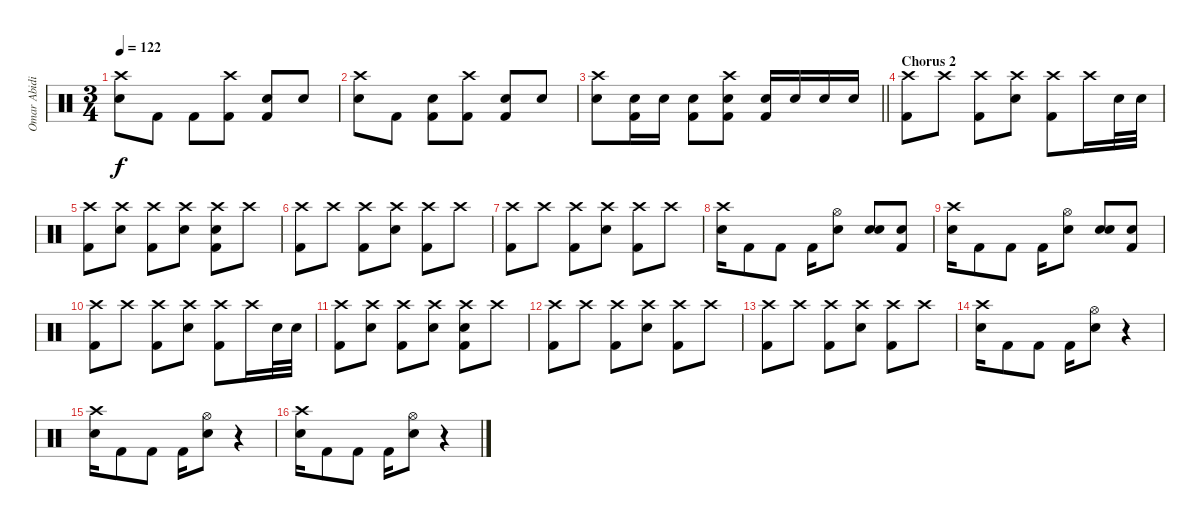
\track ("Omar Abidi" "Omar Abidi") {instrument percussion}
\staff {score}
\articulation defaults
\ts (3 4)
\tempo 122
\clef neutral
\ks c
("Crash high (hit)" "Electric Snare (hit)").8{dy f} "Kick (hit) 2".8 "Kick (hit) 2".8 ("Crash high (hit)" "Kick (hit) 2").8 ("Electric Snare (hit)" "Kick (hit) 2").8 "Electric Snare (hit)".8 |
("Crash high (hit)" "Electric Snare (hit)").8 "Kick (hit) 2".8 ("Electric Snare (hit)" "Kick (hit) 2").8 ("Crash high (hit)" "Kick (hit) 2").8 ("Electric Snare (hit)" "Kick (hit) 2").8 "Electric Snare (hit)".8 |
\barLineRight lightlight
("Crash high (hit)" "Electric Snare (hit)").8 ("Electric Snare (hit)" "Kick (hit) 2").16 "Electric Snare (hit)".16 ("Electric Snare (hit)" "Kick (hit) 2").8 ("Crash high (hit)" "Electric Snare (hit)" "Kick (hit) 2").8 ("Electric Snare (hit)" "Kick (hit) 2").16 "Electric Snare (hit)".16 "Electric Snare (hit)".16 "Electric Snare (hit)".16 |
\section ("" "Chorus 2")
("Crash high (hit)" "Kick (hit) 2").8 "Crash high (hit)".8 ("Crash high (hit)" "Kick (hit) 2").8 ("Crash high (hit)" "Electric Snare (hit)").8 ("Crash high (hit)" "Kick (hit) 2").8 "Crash high (hit)".16 "Electric Snare (hit)".32 "Electric Snare (hit)".32 |
("Crash high (hit)" "Kick (hit) 2").8 ("Crash high (hit)" "Electric Snare (hit)").8 ("Crash high (hit)" "Kick (hit) 2").8 ("Crash high (hit)" "Electric Snare (hit)").8 ("Crash high (hit)" "Electric Snare (hit)" "Kick (hit) 2").8 "Crash high (hit)".8 |
("Crash high (hit)" "Kick (hit) 2").8 "Crash high (hit)".8 ("Crash high (hit)" "Kick (hit) 2").8 ("Crash high (hit)" "Electric Snare (hit)").8 ("Crash high (hit)" "Kick (hit) 2").8 "Crash high (hit)".8 |
("Crash high (hit)" "Kick (hit) 2").8 "Crash high (hit)".8 ("Crash high (hit)" "Kick (hit) 2").8 ("Crash high (hit)" "Electric Snare (hit)").8 ("Crash high (hit)" "Kick (hit) 2").8 "Crash high (hit)".8 |
("Crash high (hit)" "Electric Snare (hit)").16 "Kick (hit) 2".8 "Kick (hit) 2".8 "Kick (hit) 2".16 ("Hi-Hat (open)" "Electric Snare (hit)").8 ("Electric Snare (hit)" "Electric Snare (hit)").8{bd 120} ("Electric Snare (hit)" "Kick (hit) 2").8 |
("Crash high (hit)" "Electric Snare (hit)").16 "Kick (hit) 2".8 "Kick (hit) 2".8 "Kick (hit) 2".16 ("Hi-Hat (open)" "Electric Snare (hit)").8 ("Electric Snare (hit)" "Electric Snare (hit)").8{bd 120} ("Electric Snare (hit)" "Kick (hit) 2").8 |
("Crash high (hit)" "Kick (hit) 2").8 "Crash high (hit)".8 ("Crash high (hit)" "Kick (hit) 2").8 ("Crash high (hit)" "Electric Snare (hit)").8 ("Crash high (hit)" "Kick (hit) 2").8 "Crash high (hit)".16 "Electric Snare (hit)".32 "Electric Snare (hit)".32 |
("Crash high (hit)" "Kick (hit) 2").8 ("Crash high (hit)" "Electric Snare (hit)").8 ("Crash high (hit)" "Kick (hit) 2").8 ("Crash high (hit)" "Electric Snare (hit)").8 ("Crash high (hit)" "Electric Snare (hit)" "Kick (hit) 2").8 "Crash high (hit)".8 |
("Crash high (hit)" "Kick (hit) 2").8 "Crash high (hit)".8 ("Crash high (hit)" "Kick (hit) 2").8 ("Crash high (hit)" "Electric Snare (hit)").8 ("Crash high (hit)" "Kick (hit) 2").8 "Crash high (hit)".8 |
("Crash high (hit)" "Kick (hit) 2").8 "Crash high (hit)".8 ("Crash high (hit)" "Kick (hit) 2").8 ("Crash high (hit)" "Electric Snare (hit)").8 ("Crash high (hit)" "Kick (hit) 2").8 "Crash high (hit)".8 |
("Crash high (hit)" "Electric Snare (hit)").16 "Kick (hit) 2".8 "Kick (hit) 2".8 "Kick (hit) 2".16 ("Hi-Hat (open)" "Electric Snare (hit)").8 r.4 |
("Crash high (hit)" "Electric Snare (hit)").16 "Kick (hit) 2".8 "Kick (hit) 2".8 "Kick (hit) 2".16 ("Hi-Hat (open)" "Electric Snare (hit)").8 r.4 |
("Crash high (hit)" "Electric Snare (hit)").16 "Kick (hit) 2".8 "Kick (hit) 2".8 "Kick (hit) 2".16 ("Hi-Hat (open)" "Electric Snare (hit)").8 r.4
